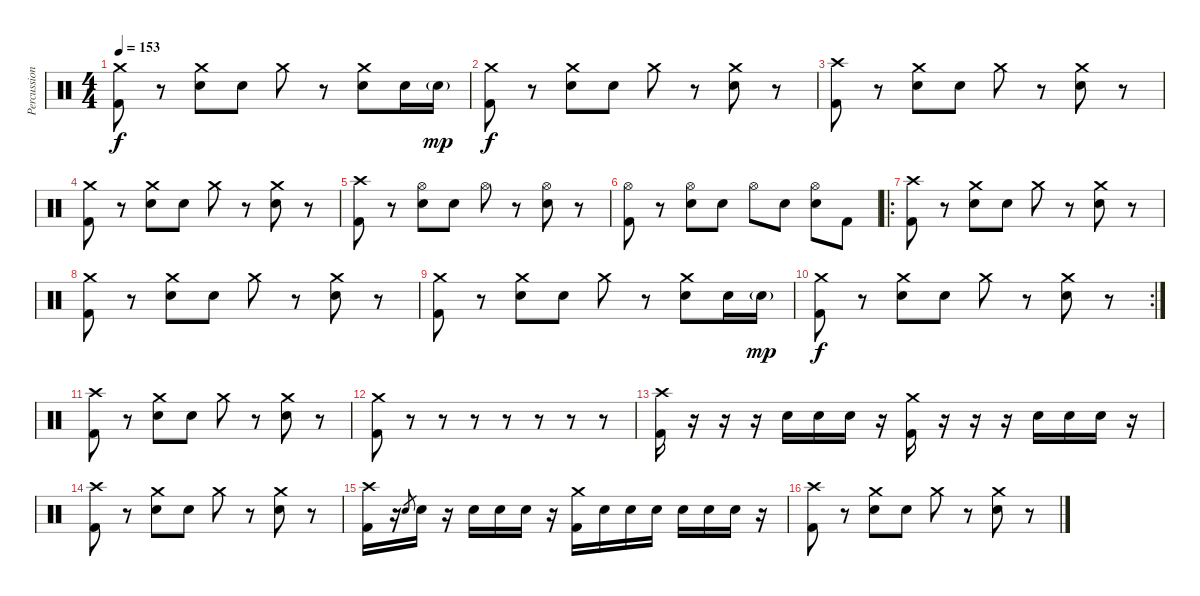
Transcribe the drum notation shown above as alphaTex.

\track ("Percussion" "Percussion") {instrument percussion}
\staff {score}
\articulation defaults
\ts (4 4)
\tempo 153
\clef neutral
\ks c
("Crash medium (hit)" "Kick (hit) 2").8{dy f} r.8 ("Crash medium (hit)" "Electric Snare (hit)").8 "Electric Snare (hit)".8 "Crash medium (hit)".8 r.8 ("Crash medium (hit)" "Electric Snare (hit)").8 "Electric Snare (hit)".16 "Electric Snare (hit)"{g}.16{dy mp} |
("Crash medium (hit)" "Kick (hit) 2").8{dy f} r.8 ("Crash medium (hit)" "Electric Snare (hit)").8 "Electric Snare (hit)".8 "Crash medium (hit)".8 r.8 ("Crash medium (hit)" "Electric Snare (hit)").8 r.8 |
("Crash high (hit)" "Kick (hit) 2").8 r.8 ("Crash medium (hit)" "Electric Snare (hit)").8 "Electric Snare (hit)".8 "Crash medium (hit)".8 r.8 ("Crash medium (hit)" "Electric Snare (hit)").8 r.8 |
("Crash medium (hit)" "Kick (hit) 2").8 r.8 ("Crash medium (hit)" "Electric Snare (hit)").8 "Electric Snare (hit)".8 "Crash medium (hit)".8 r.8 ("Crash medium (hit)" "Electric Snare (hit)").8 r.8 |
("Crash high (hit)" "Kick (hit) 2").8 r.8 ("Hi-Hat (open)" "Electric Snare (hit)").8 "Electric Snare (hit)".8 "Hi-Hat (open)".8 r.8 ("Hi-Hat (open)" "Electric Snare (hit)").8 r.8 |
("Hi-Hat (open)" "Kick (hit) 2").8 r.8 ("Hi-Hat (open)" "Electric Snare (hit)").8 "Electric Snare (hit)".8 "Hi-Hat (open)".8 "Electric Snare (hit)".8 ("Hi-Hat (open)" "Electric Snare (hit)").8 "Kick (hit) 2".8 |
\ro
("Crash high (hit)" "Kick (hit) 2").8 r.8 ("Crash medium (hit)" "Electric Snare (hit)").8 "Electric Snare (hit)".8 "Crash medium (hit)".8 r.8 ("Crash medium (hit)" "Electric Snare (hit)").8 r.8 |
("Crash medium (hit)" "Kick (hit) 2").8 r.8 ("Crash medium (hit)" "Electric Snare (hit)").8 "Electric Snare (hit)".8 "Crash medium (hit)".8 r.8 ("Crash medium (hit)" "Electric Snare (hit)").8 r.8 |
("Crash medium (hit)" "Kick (hit) 2").8 r.8 ("Crash medium (hit)" "Electric Snare (hit)").8 "Electric Snare (hit)".8 "Crash medium (hit)".8 r.8 ("Crash medium (hit)" "Electric Snare (hit)").8 "Electric Snare (hit)".16 "Electric Snare (hit)"{g}.16{dy mp} |
\rc 2
("Crash medium (hit)" "Kick (hit) 2").8{dy f} r.8 ("Crash medium (hit)" "Electric Snare (hit)").8 "Electric Snare (hit)".8 "Crash medium (hit)".8 r.8 ("Crash medium (hit)" "Electric Snare (hit)").8 r.8 |
("Crash high (hit)" "Kick (hit) 2").8 r.8 ("Crash medium (hit)" "Electric Snare (hit)").8 "Electric Snare (hit)".8 "Crash medium (hit)".8 r.8 ("Crash medium (hit)" "Electric Snare (hit)").8 r.8 |
("Crash medium (hit)" "Kick (hit) 2").8 r.8 r.8 r.8 r.8 r.8 r.8 r.8 |
\section ("" "")
("Crash high (hit)" "Kick (hit) 2").16 r.16 r.16 r.16 "Electric Snare (hit)".16 "Electric Snare (hit)".16 "Electric Snare (hit)".16 r.16 ("Crash medium (hit)" "Kick (hit) 2").16 r.16 r.16 r.16 "Electric Snare (hit)".16 "Electric Snare (hit)".16 "Electric Snare (hit)".16 r.16 |
("Crash high (hit)" "Kick (hit) 2").8 r.8 ("Crash medium (hit)" "Electric Snare (hit)").8 "Electric Snare (hit)".8 "Crash medium (hit)".8 r.8 ("Crash medium (hit)" "Electric Snare (hit)").8 r.8 |
("Crash high (hit)" "Kick (hit) 2").16 r.16 "Electric Snare (hit)".8{gr} "Electric Snare (hit)".16 r.16 "Electric Snare (hit)".16 "Electric Snare (hit)".16 "Electric Snare (hit)".16 r.16 ("Crash medium (hit)" "Kick (hit) 2").16 "Electric Snare (hit)".16 "Electric Snare (hit)".16 "Electric Snare (hit)".16 "Electric Snare (hit)".16 "Electric Snare (hit)".16 "Electric Snare (hit)".16 r.16 |
("Crash high (hit)" "Kick (hit) 2").8 r.8 ("Crash medium (hit)" "Electric Snare (hit)").8 "Electric Snare (hit)".8 "Crash medium (hit)".8 r.8 ("Crash medium (hit)" "Electric Snare (hit)").8 r.8
